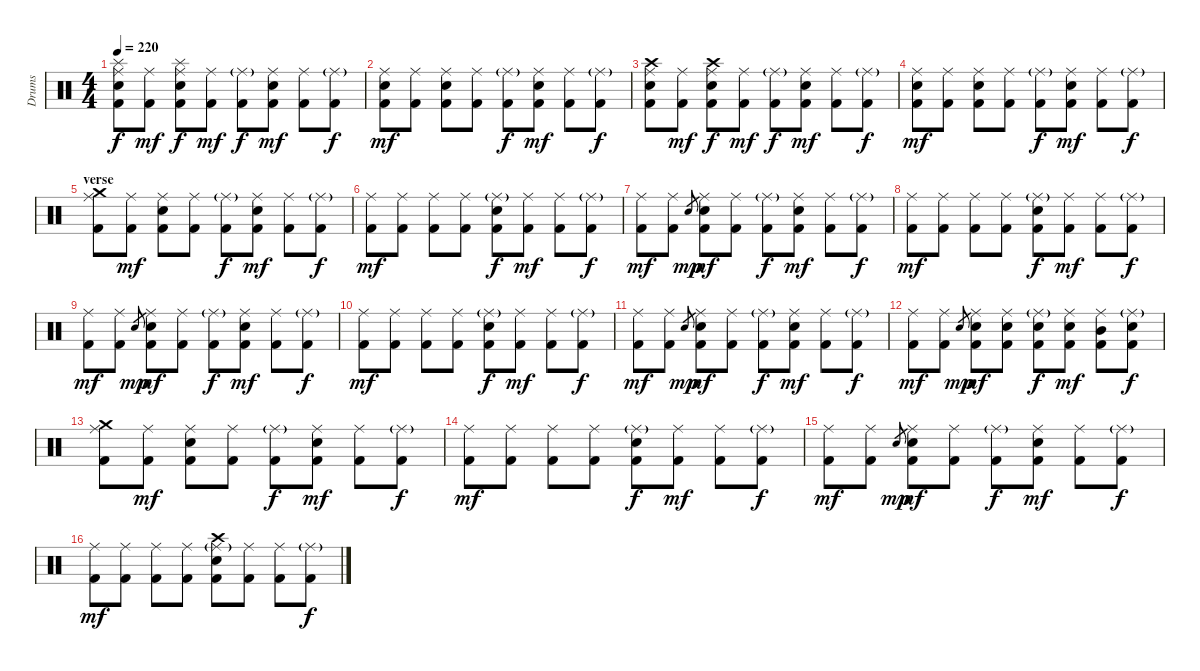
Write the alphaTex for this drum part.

\bracketExtendMode groupsimilarinstruments
\otherSystemsTrackNameOrientation horizontal
\track ("Drumkit" "Drums") {instrument percussion}
\staff {score}
\articulation defaults
\ts (4 4)
\tempo 220
\clef neutral
\ks c
("Splash (hit)" "Ride (middle)" "Snare (hit) 2" "Kick (hit) 2").8{dy f beam Down} ("Ride (middle)" "Kick (hit) 2").8{dy mf beam Down} ("Splash (hit)" "Ride (middle)" "Snare (hit) 2" "Kick (hit) 2").8{dy f beam Down} ("Ride (middle)" "Kick (hit) 2").8{dy mf beam Down} ("Ride (middle)"{g} "Kick (hit) 2").8{dy f beam Down} ("Ride (middle)" "Snare (hit) 2" "Kick (hit) 2").8{dy mf beam Down} ("Ride (middle)" "Kick (hit) 2").8{beam Down} ("Ride (middle)"{g} "Kick (hit) 2").8{dy f beam Down} |
("Ride (middle)" "Snare (hit) 2" "Kick (hit) 2").8{dy mf beam Down} ("Ride (middle)" "Kick (hit) 2").8{beam Down} ("Ride (middle)" "Snare (hit) 2" "Kick (hit) 2").8{beam Down} ("Ride (middle)" "Kick (hit) 2").8{beam Down} ("Ride (middle)"{g} "Kick (hit) 2").8{dy f beam Down} ("Ride (middle)" "Snare (hit) 2" "Kick (hit) 2").8{dy mf beam Down} ("Ride (middle)" "Kick (hit) 2").8{beam Down} ("Ride (middle)"{g} "Kick (hit) 2").8{dy f beam Down} |
("Crash high (hit)" "Ride (middle)" "Snare (hit) 2" "Kick (hit) 2").8{beam Down} ("Ride (middle)" "Kick (hit) 2").8{dy mf beam Down} ("Crash high (hit)" "Ride (middle)" "Snare (hit) 2" "Kick (hit) 2").8{dy f beam Down} ("Ride (middle)" "Kick (hit) 2").8{dy mf beam Down} ("Ride (middle)"{g} "Kick (hit) 2").8{dy f beam Down} ("Ride (middle)" "Snare (hit) 2" "Kick (hit) 2").8{dy mf beam Down} ("Ride (middle)" "Kick (hit) 2").8{beam Down} ("Ride (middle)"{g} "Kick (hit) 2").8{dy f beam Down} |
("Ride (middle)" "Snare (hit) 2" "Kick (hit) 2").8{dy mf beam Down} ("Ride (middle)" "Kick (hit) 2").8{beam Down} ("Ride (middle)" "Snare (hit) 2" "Kick (hit) 2").8{beam Down} ("Ride (middle)" "Kick (hit) 2").8{beam Down} ("Ride (middle)"{g} "Kick (hit) 2").8{dy f beam Down} ("Ride (middle)" "Snare (hit) 2" "Kick (hit) 2").8{dy mf beam Down} ("Ride (middle)" "Kick (hit) 2").8{beam Down} ("Ride (middle)"{g} "Kick (hit) 2").8{dy f beam Down} |
\section ("" "verse")
("Crash medium (hit)" "Ride (middle)" "Kick (hit) 2").8{beam Down} ("Ride (middle)" "Kick (hit) 2").8{dy mf beam Down} ("Ride (middle)" "Snare (hit) 2" "Kick (hit) 2").8{beam Down} ("Ride (middle)" "Kick (hit) 2").8{beam Down} ("Ride (middle)"{g} "Kick (hit) 2").8{dy f beam Down} ("Ride (middle)" "Snare (hit) 2" "Kick (hit) 2").8{dy mf beam Down} ("Ride (middle)" "Kick (hit) 2").8{beam Down} ("Ride (middle)"{g} "Kick (hit) 2").8{dy f beam Down} |
("Ride (middle)" "Kick (hit) 2").8{dy mf beam Down} ("Ride (middle)" "Kick (hit) 2").8{beam Down} ("Ride (middle)" "Kick (hit) 2").8{beam Down} ("Ride (middle)" "Kick (hit) 2").8{beam Down} ("Ride (middle)"{g} "Snare (hit) 2" "Kick (hit) 2").8{dy f beam Down} ("Ride (middle)" "Kick (hit) 2").8{dy mf beam Down} ("Ride (middle)" "Kick (hit) 2").8{beam Down} ("Ride (middle)"{g} "Kick (hit) 2").8{dy f beam Down} |
("Ride (middle)" "Kick (hit) 2").8{dy mf beam Down} ("Ride (middle)" "Kick (hit) 2").8{beam Down} "Snare (hit) 2".8{gr dy mp beam Up} ("Ride (middle)" "Snare (hit) 2" "Kick (hit) 2").8{dy mf beam Down} ("Ride (middle)" "Kick (hit) 2").8{beam Down} ("Ride (middle)"{g} "Kick (hit) 2").8{dy f beam Down} ("Ride (middle)" "Snare (hit) 2" "Kick (hit) 2").8{dy mf beam Down} ("Ride (middle)" "Kick (hit) 2").8{beam Down} ("Ride (middle)"{g} "Kick (hit) 2").8{dy f beam Down} |
("Ride (middle)" "Kick (hit) 2").8{dy mf beam Down} ("Ride (middle)" "Kick (hit) 2").8{beam Down} ("Ride (middle)" "Kick (hit) 2").8{beam Down} ("Ride (middle)" "Kick (hit) 2").8{beam Down} ("Ride (middle)"{g} "Snare (hit) 2" "Kick (hit) 2").8{dy f beam Down} ("Ride (middle)" "Kick (hit) 2").8{dy mf beam Down} ("Ride (middle)" "Kick (hit) 2").8{beam Down} ("Ride (middle)"{g} "Kick (hit) 2").8{dy f beam Down} |
("Ride (middle)" "Kick (hit) 2").8{dy mf beam Down} ("Ride (middle)" "Kick (hit) 2").8{beam Down} "Snare (hit) 2".8{gr dy mp beam Up} ("Ride (middle)" "Snare (hit) 2" "Kick (hit) 2").8{dy mf beam Down} ("Ride (middle)" "Kick (hit) 2").8{beam Down} ("Ride (middle)"{g} "Kick (hit) 2").8{dy f beam Down} ("Ride (middle)" "Snare (hit) 2" "Kick (hit) 2").8{dy mf beam Down} ("Ride (middle)" "Kick (hit) 2").8{beam Down} ("Ride (middle)"{g} "Kick (hit) 2").8{dy f beam Down} |
("Ride (middle)" "Kick (hit) 2").8{dy mf beam Down} ("Ride (middle)" "Kick (hit) 2").8{beam Down} ("Ride (middle)" "Kick (hit) 2").8{beam Down} ("Ride (middle)" "Kick (hit) 2").8{beam Down} ("Ride (middle)"{g} "Snare (hit) 2" "Kick (hit) 2").8{dy f beam Down} ("Ride (middle)" "Kick (hit) 2").8{dy mf beam Down} ("Ride (middle)" "Kick (hit) 2").8{beam Down} ("Ride (middle)"{g} "Kick (hit) 2").8{dy f beam Down} |
("Ride (middle)" "Kick (hit) 2").8{dy mf beam Down} ("Ride (middle)" "Kick (hit) 2").8{beam Down} "Snare (hit) 2".8{gr dy mp beam Up} ("Ride (middle)" "Snare (hit) 2" "Kick (hit) 2").8{dy mf beam Down} ("Ride (middle)" "Kick (hit) 2").8{beam Down} ("Ride (middle)"{g} "Kick (hit) 2").8{dy f beam Down} ("Ride (middle)" "Snare (hit) 2" "Kick (hit) 2").8{dy mf beam Down} ("Ride (middle)" "Kick (hit) 2").8{beam Down} ("Ride (middle)"{g} "Kick (hit) 2").8{dy f beam Down} |
("Ride (middle)" "Kick (hit) 2").8{dy mf beam Down} ("Ride (middle)" "Kick (hit) 2").8{beam Down} "Snare (hit) 2".8{gr dy mp beam Up} ("Ride (middle)" "Snare (hit) 2" "Kick (hit) 2").8{dy mf beam Down} ("Ride (middle)" "Snare (hit) 2" "Kick (hit) 2").8{beam Down} ("Ride (middle)"{g} "Snare (hit) 2" "Kick (hit) 2").8{dy f beam Down} ("Ride (middle)" "Snare (hit) 2" "Kick (hit) 2").8{dy mf beam Down} ("Ride (middle)" "Mid Tom (hit)" "Kick (hit) 2").8{beam Down} ("Ride (middle)"{g} "Snare (hit) 2" "Kick (hit) 2").8{dy f beam Down} |
("Crash medium (hit)" "Ride (middle)" "Kick (hit) 2").8{beam Down} ("Ride (middle)" "Kick (hit) 2").8{dy mf beam Down} ("Ride (middle)" "Snare (hit) 2" "Kick (hit) 2").8{beam Down} ("Ride (middle)" "Kick (hit) 2").8{beam Down} ("Ride (middle)"{g} "Kick (hit) 2").8{dy f beam Down} ("Ride (middle)" "Snare (hit) 2" "Kick (hit) 2").8{dy mf beam Down} ("Ride (middle)" "Kick (hit) 2").8{beam Down} ("Ride (middle)"{g} "Kick (hit) 2").8{dy f beam Down} |
("Ride (middle)" "Kick (hit) 2").8{dy mf beam Down} ("Ride (middle)" "Kick (hit) 2").8{beam Down} ("Ride (middle)" "Kick (hit) 2").8{beam Down} ("Ride (middle)" "Kick (hit) 2").8{beam Down} ("Ride (middle)"{g} "Snare (hit) 2" "Kick (hit) 2").8{dy f beam Down} ("Ride (middle)" "Kick (hit) 2").8{dy mf beam Down} ("Ride (middle)" "Kick (hit) 2").8{beam Down} ("Ride (middle)"{g} "Kick (hit) 2").8{dy f beam Down} |
("Ride (middle)" "Kick (hit) 2").8{dy mf beam Down} ("Ride (middle)" "Kick (hit) 2").8{beam Down} "Snare (hit) 2".8{gr dy mp beam Up} ("Ride (middle)" "Snare (hit) 2" "Kick (hit) 2").8{dy mf beam Down} ("Ride (middle)" "Kick (hit) 2").8{beam Down} ("Ride (middle)"{g} "Kick (hit) 2").8{dy f beam Down} ("Ride (middle)" "Snare (hit) 2" "Kick (hit) 2").8{dy mf beam Down} ("Ride (middle)" "Kick (hit) 2").8{beam Down} ("Ride (middle)"{g} "Kick (hit) 2").8{dy f beam Down} |
("Ride (middle)" "Kick (hit) 2").8{dy mf beam Down} ("Ride (middle)" "Kick (hit) 2").8{beam Down} ("Ride (middle)" "Kick (hit) 2").8{beam Down} ("Ride (middle)" "Kick (hit) 2").8{beam Down} ("Crash high (hit)" "Ride (middle)"{g} "Snare (hit) 2" "Kick (hit) 2").8{beam Down} ("Ride (middle)" "Kick (hit) 2").8{beam Down} ("Ride (middle)" "Kick (hit) 2").8{beam Down} ("Ride (middle)"{g} "Kick (hit) 2").8{dy f beam Down}
